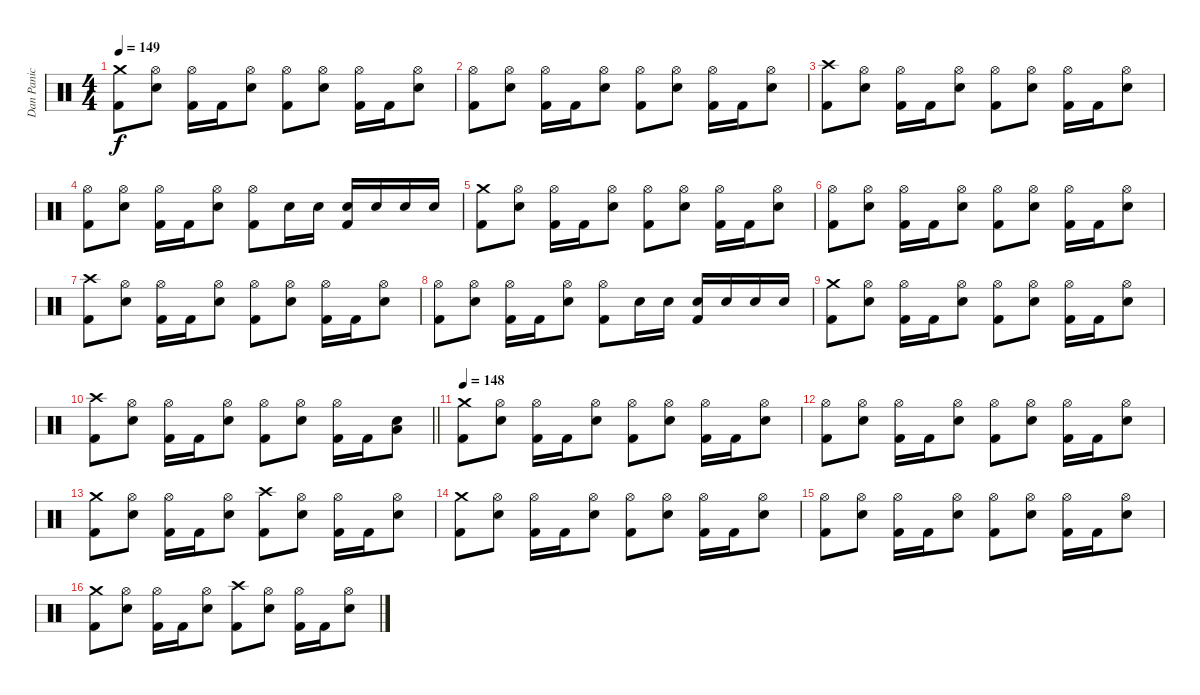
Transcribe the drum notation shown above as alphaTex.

\track ("Dan Panic" "Dan Panic") {instrument percussion}
\staff {score}
\articulation defaults
\ts (4 4)
\section ("" "")
\tempo 149
\clef neutral
\ks c
("Crash medium (hit)" "Kick (hit) 2").8{dy f} ("Hi-Hat (open)" "Electric Snare (hit)").8 ("Hi-Hat (open)" "Kick (hit) 2").16 "Kick (hit) 2".16 ("Hi-Hat (open)" "Electric Snare (hit)").8 ("Hi-Hat (open)" "Kick (hit) 2").8 ("Hi-Hat (open)" "Electric Snare (hit)").8 ("Hi-Hat (open)" "Kick (hit) 2").16 "Kick (hit) 2".16 ("Hi-Hat (open)" "Electric Snare (hit)").8 |
("Hi-Hat (open)" "Kick (hit) 2").8 ("Hi-Hat (open)" "Electric Snare (hit)").8 ("Hi-Hat (open)" "Kick (hit) 2").16 "Kick (hit) 2".16 ("Hi-Hat (open)" "Electric Snare (hit)").8 ("Hi-Hat (open)" "Kick (hit) 2").8 ("Hi-Hat (open)" "Electric Snare (hit)").8 ("Hi-Hat (open)" "Kick (hit) 2").16 "Kick (hit) 2".16 ("Hi-Hat (open)" "Electric Snare (hit)").8 |
("Crash high (hit)" "Kick (hit) 2").8 ("Hi-Hat (open)" "Electric Snare (hit)").8 ("Hi-Hat (open)" "Kick (hit) 2").16 "Kick (hit) 2".16 ("Hi-Hat (open)" "Electric Snare (hit)").8 ("Hi-Hat (open)" "Kick (hit) 2").8 ("Hi-Hat (open)" "Electric Snare (hit)").8 ("Hi-Hat (open)" "Kick (hit) 2").16 "Kick (hit) 2".16 ("Hi-Hat (open)" "Electric Snare (hit)").8 |
("Hi-Hat (open)" "Kick (hit) 2").8 ("Hi-Hat (open)" "Electric Snare (hit)").8 ("Hi-Hat (open)" "Kick (hit) 2").16 "Kick (hit) 2".16 ("Hi-Hat (open)" "Electric Snare (hit)").8 ("Hi-Hat (open)" "Kick (hit) 2").8 "Electric Snare (hit)".16 "Electric Snare (hit)".16 ("Electric Snare (hit)" "Kick (hit) 2").16 "Electric Snare (hit)".16 "Electric Snare (hit)".16 "Electric Snare (hit)".16 |
("Crash medium (hit)" "Kick (hit) 2").8 ("Hi-Hat (open)" "Electric Snare (hit)").8 ("Hi-Hat (open)" "Kick (hit) 2").16 "Kick (hit) 2".16 ("Hi-Hat (open)" "Electric Snare (hit)").8 ("Hi-Hat (open)" "Kick (hit) 2").8 ("Hi-Hat (open)" "Electric Snare (hit)").8 ("Hi-Hat (open)" "Kick (hit) 2").16 "Kick (hit) 2".16 ("Hi-Hat (open)" "Electric Snare (hit)").8 |
("Hi-Hat (open)" "Kick (hit) 2").8 ("Hi-Hat (open)" "Electric Snare (hit)").8 ("Hi-Hat (open)" "Kick (hit) 2").16 "Kick (hit) 2".16 ("Hi-Hat (open)" "Electric Snare (hit)").8 ("Hi-Hat (open)" "Kick (hit) 2").8 ("Hi-Hat (open)" "Electric Snare (hit)").8 ("Hi-Hat (open)" "Kick (hit) 2").16 "Kick (hit) 2".16 ("Hi-Hat (open)" "Electric Snare (hit)").8 |
("Crash high (hit)" "Kick (hit) 2").8 ("Hi-Hat (open)" "Electric Snare (hit)").8 ("Hi-Hat (open)" "Kick (hit) 2").16 "Kick (hit) 2".16 ("Hi-Hat (open)" "Electric Snare (hit)").8 ("Hi-Hat (open)" "Kick (hit) 2").8 ("Hi-Hat (open)" "Electric Snare (hit)").8 ("Hi-Hat (open)" "Kick (hit) 2").16 "Kick (hit) 2".16 ("Hi-Hat (open)" "Electric Snare (hit)").8 |
("Hi-Hat (open)" "Kick (hit) 2").8 ("Hi-Hat (open)" "Electric Snare (hit)").8 ("Hi-Hat (open)" "Kick (hit) 2").16 "Kick (hit) 2".16 ("Hi-Hat (open)" "Electric Snare (hit)").8 ("Hi-Hat (open)" "Kick (hit) 2").8 "Electric Snare (hit)".16 "Electric Snare (hit)".16 ("Electric Snare (hit)" "Kick (hit) 2").16 "Electric Snare (hit)".16 "Electric Snare (hit)".16 "Electric Snare (hit)".16 |
("Crash medium (hit)" "Kick (hit) 2").8 ("Hi-Hat (open)" "Electric Snare (hit)").8 ("Hi-Hat (open)" "Kick (hit) 2").16 "Kick (hit) 2".16 ("Hi-Hat (open)" "Electric Snare (hit)").8 ("Hi-Hat (open)" "Kick (hit) 2").8 ("Hi-Hat (open)" "Electric Snare (hit)").8 ("Hi-Hat (open)" "Kick (hit) 2").16 "Kick (hit) 2".16 ("Hi-Hat (open)" "Electric Snare (hit)").8 |
\barLineRight lightlight
("Crash high (hit)" "Kick (hit) 2").8 ("Hi-Hat (open)" "Electric Snare (hit)").8 ("Hi-Hat (open)" "Kick (hit) 2").16 "Kick (hit) 2".16 ("Hi-Hat (open)" "Electric Snare (hit)").8 ("Hi-Hat (open)" "Kick (hit) 2").8 ("Hi-Hat (open)" "Electric Snare (hit)").8 ("Hi-Hat (open)" "Kick (hit) 2").16 "Kick (hit) 2".16 ("Electric Snare (hit)" "Low Floor Tom (hit)").8 |
\section ("" "")
\tempo 148
("Crash medium (hit)" "Kick (hit) 2").8 ("Hi-Hat (open)" "Electric Snare (hit)").8 ("Hi-Hat (open)" "Kick (hit) 2").16 "Kick (hit) 2".16 ("Hi-Hat (open)" "Electric Snare (hit)").8 ("Hi-Hat (open)" "Kick (hit) 2").8 ("Hi-Hat (open)" "Electric Snare (hit)").8 ("Hi-Hat (open)" "Kick (hit) 2").16 "Kick (hit) 2".16 ("Hi-Hat (open)" "Electric Snare (hit)").8 |
("Hi-Hat (open)" "Kick (hit) 2").8 ("Hi-Hat (open)" "Electric Snare (hit)").8 ("Hi-Hat (open)" "Kick (hit) 2").16 "Kick (hit) 2".16 ("Hi-Hat (open)" "Electric Snare (hit)").8 ("Hi-Hat (open)" "Kick (hit) 2").8 ("Hi-Hat (open)" "Electric Snare (hit)").8 ("Hi-Hat (open)" "Kick (hit) 2").16 "Kick (hit) 2".16 ("Hi-Hat (open)" "Electric Snare (hit)").8 |
("Crash medium (hit)" "Kick (hit) 2").8 ("Hi-Hat (open)" "Electric Snare (hit)").8 ("Hi-Hat (open)" "Kick (hit) 2").16 "Kick (hit) 2".16 ("Hi-Hat (open)" "Electric Snare (hit)").8 ("Crash high (hit)" "Kick (hit) 2").8 ("Hi-Hat (open)" "Electric Snare (hit)").8 ("Hi-Hat (open)" "Kick (hit) 2").16 "Kick (hit) 2".16 ("Hi-Hat (open)" "Electric Snare (hit)").8 |
("Crash medium (hit)" "Kick (hit) 2").8 ("Hi-Hat (open)" "Electric Snare (hit)").8 ("Hi-Hat (open)" "Kick (hit) 2").16 "Kick (hit) 2".16 ("Hi-Hat (open)" "Electric Snare (hit)").8 ("Hi-Hat (open)" "Kick (hit) 2").8 ("Hi-Hat (open)" "Electric Snare (hit)").8 ("Hi-Hat (open)" "Kick (hit) 2").16 "Kick (hit) 2".16 ("Hi-Hat (open)" "Electric Snare (hit)").8 |
("Hi-Hat (open)" "Kick (hit) 2").8 ("Hi-Hat (open)" "Electric Snare (hit)").8 ("Hi-Hat (open)" "Kick (hit) 2").16 "Kick (hit) 2".16 ("Hi-Hat (open)" "Electric Snare (hit)").8 ("Hi-Hat (open)" "Kick (hit) 2").8 ("Hi-Hat (open)" "Electric Snare (hit)").8 ("Hi-Hat (open)" "Kick (hit) 2").16 "Kick (hit) 2".16 ("Hi-Hat (open)" "Electric Snare (hit)").8 |
("Crash medium (hit)" "Kick (hit) 2").8 ("Hi-Hat (open)" "Electric Snare (hit)").8 ("Hi-Hat (open)" "Kick (hit) 2").16 "Kick (hit) 2".16 ("Hi-Hat (open)" "Electric Snare (hit)").8 ("Crash high (hit)" "Kick (hit) 2").8 ("Hi-Hat (open)" "Electric Snare (hit)").8 ("Hi-Hat (open)" "Kick (hit) 2").16 "Kick (hit) 2".16 ("Hi-Hat (open)" "Electric Snare (hit)").8
